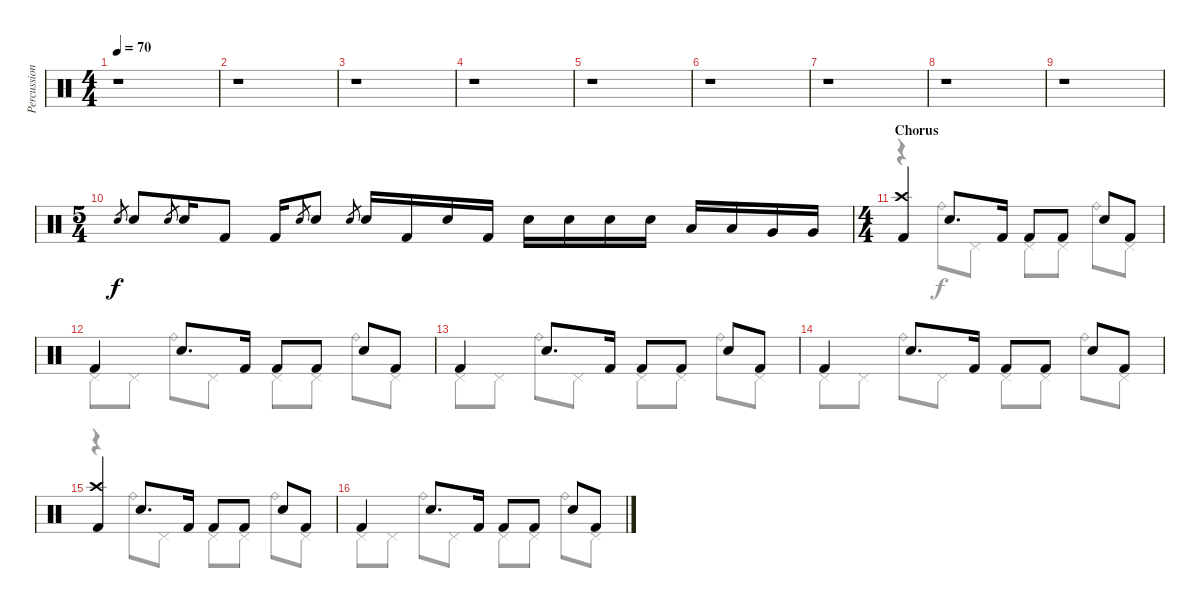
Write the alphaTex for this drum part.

\track ("Percussion" "Percussion") {instrument percussion}
\staff {score}
\articulation defaults
\voice
\ts (4 4)
\tempo 70
\clef neutral
\ks c
r.1{dy f} |
r.1 |
r.1 |
r.1 |
r.1 |
r.1 |
r.1 |
r.1 |
r.1 |
\ts (5 4)
"Snare (hit) 2".8{gr} "Snare (hit) 2".8 "Snare (hit) 2".8{gr} "Snare (hit) 2".16 "Kick (hit) 2".8 "Kick (hit) 2".16 "Snare (hit) 2".8{gr} "Snare (hit) 2".8 "Snare (hit) 2".8{gr} "Snare (hit) 2".16 "Kick (hit) 2".16 "Snare (hit) 2".16 "Kick (hit) 2".16 "Snare (hit) 2".16 "Snare (hit) 2".16 "Snare (hit) 2".16 "Snare (hit) 2".16 "Low Tom (hit)".16 "Low Tom (hit)".16 "Very Low Tom (hit)".16 "Very Low Tom (hit)".16 |
\ts (4 4)
\section ("" "Chorus")
("Crash high (hit)" "Kick (hit) 2").4 "Snare (hit) 2".8{d} "Kick (hit) 2".16 "Kick (hit) 2".8 "Kick (hit) 2".8 "Snare (hit) 2".8 "Kick (hit) 2".8 |
"Kick (hit) 2".4 "Snare (hit) 2".8{d} "Kick (hit) 2".16 "Kick (hit) 2".8 "Kick (hit) 2".8 "Snare (hit) 2".8 "Kick (hit) 2".8 |
"Kick (hit) 2".4 "Snare (hit) 2".8{d} "Kick (hit) 2".16 "Kick (hit) 2".8 "Kick (hit) 2".8 "Snare (hit) 2".8 "Kick (hit) 2".8 |
"Kick (hit) 2".4 "Snare (hit) 2".8{d} "Kick (hit) 2".16 "Kick (hit) 2".8 "Kick (hit) 2".8 "Snare (hit) 2".8 "Kick (hit) 2".8 |
("Crash high (hit)" "Kick (hit) 2").4 "Snare (hit) 2".8{d} "Kick (hit) 2".16 "Kick (hit) 2".8 "Kick (hit) 2".8 "Snare (hit) 2".8 "Kick (hit) 2".8 |
"Kick (hit) 2".4 "Snare (hit) 2".8{d} "Kick (hit) 2".16 "Kick (hit) 2".8 "Kick (hit) 2".8 "Snare (hit) 2".8 "Kick (hit) 2".8
\voice
\clef neutral
\ottava regular
\simile none
\ks c
|
|
|
|
|
|
|
|
|
|
r.4 "Ride (bell)".8 "Pedal Hi-Hat (hit)".8 "Pedal Hi-Hat (hit)".8 "Pedal Hi-Hat (hit)".8 "Ride (bell)".8 "Pedal Hi-Hat (hit)".8 |
"Pedal Hi-Hat (hit)".8 "Pedal Hi-Hat (hit)".8 "Ride (bell)".8 "Pedal Hi-Hat (hit)".8 "Pedal Hi-Hat (hit)".8 "Pedal Hi-Hat (hit)".8 "Ride (bell)".8 "Pedal Hi-Hat (hit)".8 |
"Pedal Hi-Hat (hit)".8 "Pedal Hi-Hat (hit)".8 "Ride (bell)".8 "Pedal Hi-Hat (hit)".8 "Pedal Hi-Hat (hit)".8 "Pedal Hi-Hat (hit)".8 "Ride (bell)".8 "Pedal Hi-Hat (hit)".8 |
"Pedal Hi-Hat (hit)".8 "Pedal Hi-Hat (hit)".8 "Ride (bell)".8 "Pedal Hi-Hat (hit)".8 "Pedal Hi-Hat (hit)".8 "Pedal Hi-Hat (hit)".8 "Ride (bell)".8 "Pedal Hi-Hat (hit)".8 |
r.4 "Ride (bell)".8 "Pedal Hi-Hat (hit)".8 "Pedal Hi-Hat (hit)".8 "Pedal Hi-Hat (hit)".8 "Ride (bell)".8 "Pedal Hi-Hat (hit)".8 |
"Pedal Hi-Hat (hit)".8 "Pedal Hi-Hat (hit)".8 "Ride (bell)".8 "Pedal Hi-Hat (hit)".8 "Pedal Hi-Hat (hit)".8 "Pedal Hi-Hat (hit)".8 "Ride (bell)".8 "Pedal Hi-Hat (hit)".8
